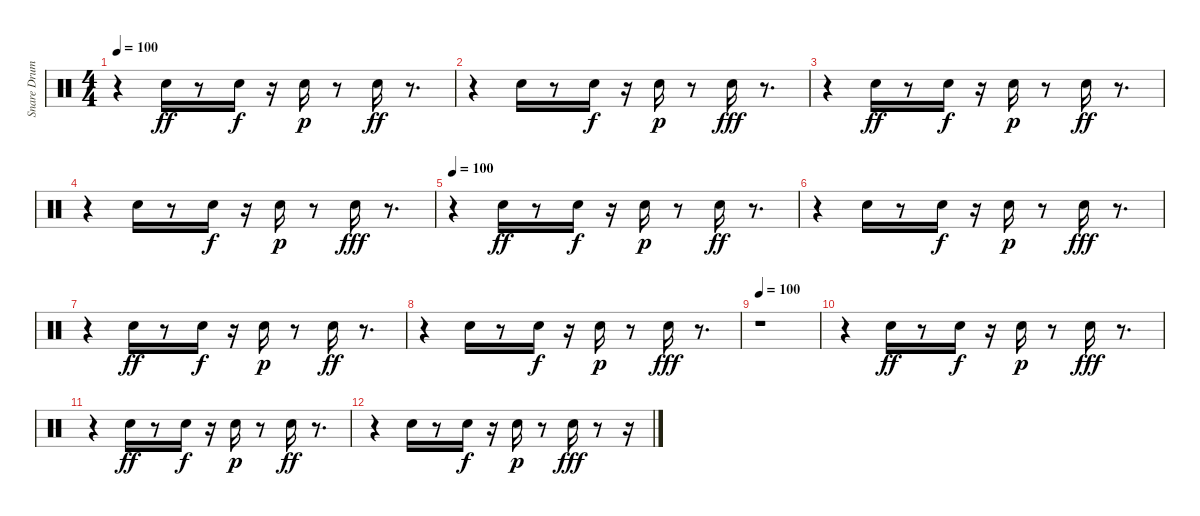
\track ("Snare Drums" "Snare Drum") {instrument percussion}
\staff {score}
\articulation defaults
\ts (4 4)
\tempo 100
\clef neutral
\ks c
r.4{dy fff} "Snare (hit) 2".16{dy ff} r.8 "Electric Snare (hit)".16{dy f} r.16 "Electric Snare (hit)".16{dy p} r.8 "Snare (hit) 2".16{dy ff} r.8{d} |
r.4 "Snare (hit) 2".16 r.8 "Electric Snare (hit)".16{dy f} r.16 "Electric Snare (hit)".16{dy p} r.8 "Snare (hit) 2".16{dy fff} r.8{d} |
r.4 "Snare (hit) 2".16{dy ff} r.8 "Electric Snare (hit)".16{dy f} r.16 "Electric Snare (hit)".16{dy p} r.8 "Snare (hit) 2".16{dy ff} r.8{d} |
r.4 "Snare (hit) 2".16 r.8 "Electric Snare (hit)".16{dy f} r.16 "Electric Snare (hit)".16{dy p} r.8 "Snare (hit) 2".16{dy fff} r.8{d} |
\tempo 100
r.4 "Snare (hit) 2".16{dy ff} r.8 "Electric Snare (hit)".16{dy f} r.16 "Electric Snare (hit)".16{dy p} r.8 "Snare (hit) 2".16{dy ff} r.8{d} |
r.4 "Snare (hit) 2".16 r.8 "Electric Snare (hit)".16{dy f} r.16 "Electric Snare (hit)".16{dy p} r.8 "Snare (hit) 2".16{dy fff} r.8{d} |
r.4 "Snare (hit) 2".16{dy ff} r.8 "Electric Snare (hit)".16{dy f} r.16 "Electric Snare (hit)".16{dy p} r.8 "Snare (hit) 2".16{dy ff} r.8{d} |
r.4 "Snare (hit) 2".16 r.8 "Electric Snare (hit)".16{dy f} r.16 "Electric Snare (hit)".16{dy p} r.8 "Snare (hit) 2".16{dy fff} r.8{d} |
\tempo 100
r.1 |
r.4 "Snare (hit) 2".16{dy ff volume 11} r.8 "Electric Snare (hit)".16{dy f volume 10} r.16 "Electric Snare (hit)".16{dy p volume 10} r.8 "Snare (hit) 2".16{dy fff volume 10} r.8{d} |
r.4 "Snare (hit) 2".16{dy ff volume 8} r.8 "Electric Snare (hit)".16{dy f volume 8} r.16 "Electric Snare (hit)".16{dy p volume 7} r.8 "Snare (hit) 2".16{dy ff volume 7} r.8{d} |
r.4 "Snare (hit) 2".16{volume 5} r.8 "Electric Snare (hit)".16{dy f volume 5} r.16 "Electric Snare (hit)".16{dy p volume 4} r.8 "Snare (hit) 2".16{dy fff volume 4} r.8 r.16
